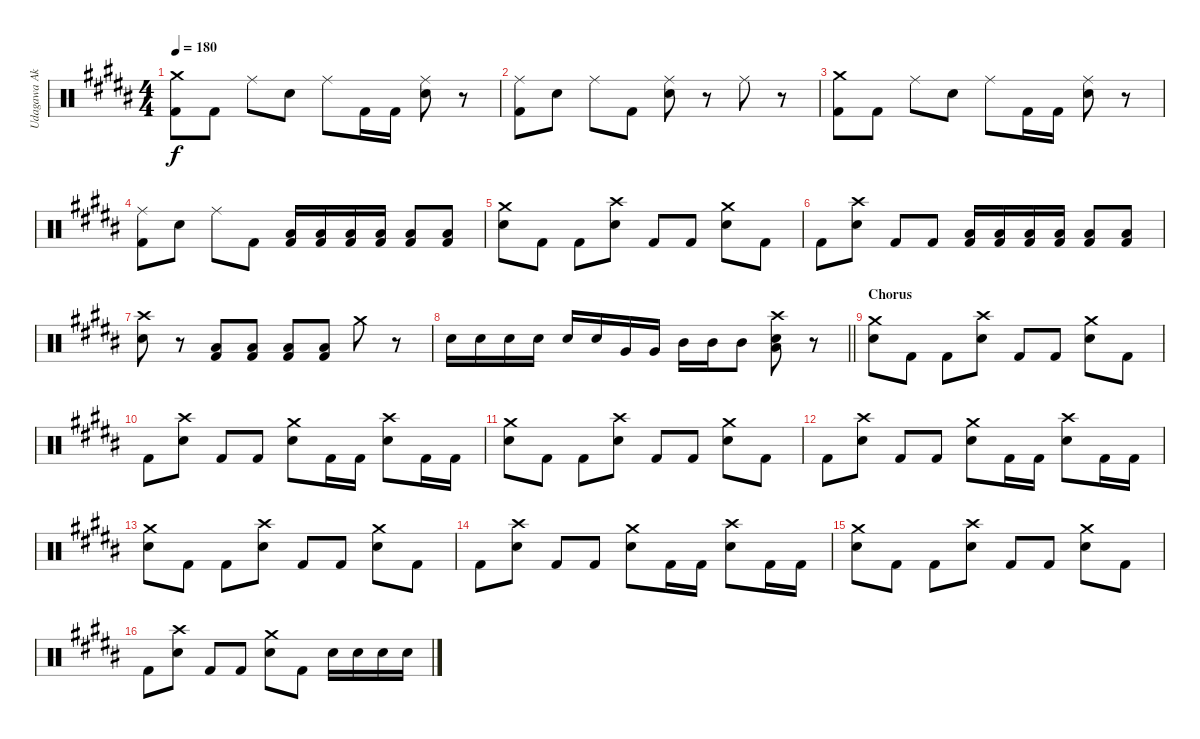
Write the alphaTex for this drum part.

\track ("Udagawa Ako" "Udagawa Ak") {instrument percussion}
\staff {score}
\articulation defaults
\ts (4 4)
\tempo 180
\clef neutral
\ks b
("Crash medium (hit)" "Kick (hit) 2").8{dy f} "Kick (hit) 2".8 "Ride (middle)".8 "Electric Snare (hit)".8 "Ride (middle)".8 "Kick (hit) 2".16 "Kick (hit) 2".16 ("Ride (middle)" "Electric Snare (hit)").8 r.8 |
("Ride (middle)" "Kick (hit) 2").8 "Electric Snare (hit)".8 "Ride (middle)".8 "Kick (hit) 2".8 ("Ride (middle)" "Electric Snare (hit)").8 r.8 "Ride (middle)".8 r.8 |
("Crash medium (hit)" "Kick (hit) 2").8 "Kick (hit) 2".8 "Ride (middle)".8 "Electric Snare (hit)".8 "Ride (middle)".8 "Kick (hit) 2".16 "Kick (hit) 2".16 ("Ride (middle)" "Electric Snare (hit)").8 r.8 |
("Ride (middle)" "Kick (hit) 2").8 "Electric Snare (hit)".8 "Ride (middle)".8 "Kick (hit) 2".8 ("Low Tom (hit)" "Kick (hit) 2").16 ("Low Tom (hit)" "Kick (hit) 2").16 ("Low Tom (hit)" "Kick (hit) 2").16 ("Low Tom (hit)" "Kick (hit) 2").16 ("Low Tom (hit)" "Kick (hit) 2").8 ("Low Tom (hit)" "Kick (hit) 2").8 |
("Crash medium (hit)" "Electric Snare (hit)").8 "Kick (hit) 2".8 "Kick (hit) 2".8 ("Crash high (hit)" "Electric Snare (hit)").8 "Kick (hit) 2".8 "Kick (hit) 2".8 ("Crash medium (hit)" "Electric Snare (hit)").8 "Kick (hit) 2".8 |
"Kick (hit) 2".8 ("Crash high (hit)" "Electric Snare (hit)").8 "Kick (hit) 2".8 "Kick (hit) 2".8 ("Low Tom (hit)" "Kick (hit) 2").16 ("Low Tom (hit)" "Kick (hit) 2").16 ("Low Tom (hit)" "Kick (hit) 2").16 ("Low Tom (hit)" "Kick (hit) 2").16 ("Low Tom (hit)" "Kick (hit) 2").8 ("Low Tom (hit)" "Kick (hit) 2").8 |
("Crash high (hit)" "Electric Snare (hit)").8 r.8 ("Low Tom (hit)" "Kick (hit) 2").8 ("Low Tom (hit)" "Kick (hit) 2").8 ("Low Tom (hit)" "Kick (hit) 2").8 ("Low Tom (hit)" "Kick (hit) 2").8 "Crash medium (hit)".8 r.8 |
\barLineRight lightlight "Electric Snare (hit)".16 "Electric Snare (hit)".16 "Electric Snare (hit)".16 "Electric Snare (hit)".16 "Electric Snare (hit)".16 "Electric Snare (hit)".16 "Very Low Tom (hit)".16 "Very Low Tom (hit)".16 "Mid Tom (hit)".16 "Mid Tom (hit)".16 "Mid Tom (hit)".8
("Crash high (hit)" "Low Tom (hit)" "Electric Snare (hit)").8 r.8 |
\section ("" "Chorus")
("Crash medium (hit)" "Electric Snare (hit)").8 "Kick (hit) 2".8 "Kick (hit) 2".8 ("Crash high (hit)" "Electric Snare (hit)").8 "Kick (hit) 2".8 "Kick (hit) 2".8 ("Crash medium (hit)" "Electric Snare (hit)").8 "Kick (hit) 2".8 |
"Kick (hit) 2".8 ("Crash high (hit)" "Electric Snare (hit)").8 "Kick (hit) 2".8 "Kick (hit) 2".8 ("Crash medium (hit)" "Electric Snare (hit)").8 "Kick (hit) 2".16 "Kick (hit) 2".16 ("Crash high (hit)" "Electric Snare (hit)").8 "Kick (hit) 2".16 "Kick (hit) 2".16 |
("Crash medium (hit)" "Electric Snare (hit)").8 "Kick (hit) 2".8 "Kick (hit) 2".8 ("Crash high (hit)" "Electric Snare (hit)").8 "Kick (hit) 2".8 "Kick (hit) 2".8 ("Crash medium (hit)" "Electric Snare (hit)").8 "Kick (hit) 2".8 |
"Kick (hit) 2".8 ("Crash high (hit)" "Electric Snare (hit)").8 "Kick (hit) 2".8 "Kick (hit) 2".8 ("Crash medium (hit)" "Electric Snare (hit)").8 "Kick (hit) 2".16 "Kick (hit) 2".16 ("Crash high (hit)" "Electric Snare (hit)").8 "Kick (hit) 2".16 "Kick (hit) 2".16 |
("Crash medium (hit)" "Electric Snare (hit)").8 "Kick (hit) 2".8 "Kick (hit) 2".8 ("Crash high (hit)" "Electric Snare (hit)").8 "Kick (hit) 2".8 "Kick (hit) 2".8 ("Crash medium (hit)" "Electric Snare (hit)").8 "Kick (hit) 2".8 |
"Kick (hit) 2".8 ("Crash high (hit)" "Electric Snare (hit)").8 "Kick (hit) 2".8 "Kick (hit) 2".8 ("Crash medium (hit)" "Electric Snare (hit)").8 "Kick (hit) 2".16 "Kick (hit) 2".16 ("Crash high (hit)" "Electric Snare (hit)").8 "Kick (hit) 2".16 "Kick (hit) 2".16 |
("Crash medium (hit)" "Electric Snare (hit)").8 "Kick (hit) 2".8 "Kick (hit) 2".8 ("Crash high (hit)" "Electric Snare (hit)").8 "Kick (hit) 2".8 "Kick (hit) 2".8 ("Crash medium (hit)" "Electric Snare (hit)").8 "Kick (hit) 2".8 |
"Kick (hit) 2".8 ("Crash high (hit)" "Electric Snare (hit)").8 "Kick (hit) 2".8 "Kick (hit) 2".8 ("Crash medium (hit)" "Electric Snare (hit)").8 "Kick (hit) 2".8 "Electric Snare (hit)".16 "Electric Snare (hit)".16 "Electric Snare (hit)".16 "Electric Snare (hit)".16
